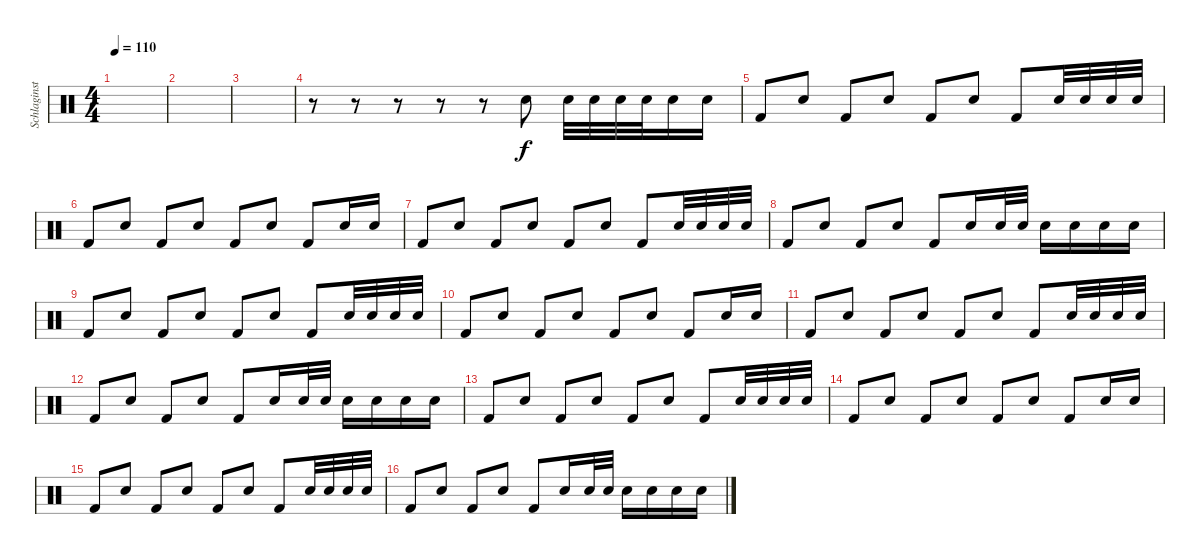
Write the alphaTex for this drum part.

\track ("Schlaginstrumente - Auswahl" "Schlaginst") {instrument percussion}
\staff {score}
\articulation defaults
\ts (4 4)
\tempo 110
\clef neutral
\ks c
|
|
|
r.8 r.8 r.8 r.8 r.8 "Electric Snare (hit)".8 "Electric Snare (hit)".32 "Electric Snare (hit)".32 "Electric Snare (hit)".32 "Electric Snare (hit)".32 "Electric Snare (hit)".16 "Electric Snare (hit)".16 |
"Kick (hit) 2".8 "Electric Snare (hit)".8 "Kick (hit) 2".8 "Electric Snare (hit)".8 "Kick (hit) 2".8 "Electric Snare (hit)".8 "Kick (hit) 2".8 "Electric Snare (hit)".32 "Electric Snare (hit)".32 "Electric Snare (hit)".32 "Electric Snare (hit)".32 |
"Kick (hit) 2".8 "Electric Snare (hit)".8 "Kick (hit) 2".8 "Electric Snare (hit)".8 "Kick (hit) 2".8 "Electric Snare (hit)".8 "Kick (hit) 2".8 "Electric Snare (hit)".16 "Electric Snare (hit)".16 |
"Kick (hit) 2".8 "Electric Snare (hit)".8 "Kick (hit) 2".8 "Electric Snare (hit)".8 "Kick (hit) 2".8 "Electric Snare (hit)".8 "Kick (hit) 2".8 "Electric Snare (hit)".32 "Electric Snare (hit)".32 "Electric Snare (hit)".32 "Electric Snare (hit)".32 |
"Kick (hit) 2".8 "Electric Snare (hit)".8 "Kick (hit) 2".8 "Electric Snare (hit)".8 "Kick (hit) 2".8 "Electric Snare (hit)".16 "Electric Snare (hit)".32 "Electric Snare (hit)".32 "Electric Snare (hit)".16 "Electric Snare (hit)".16 "Electric Snare (hit)".16 "Electric Snare (hit)".16 |
"Kick (hit) 2".8 "Electric Snare (hit)".8 "Kick (hit) 2".8 "Electric Snare (hit)".8 "Kick (hit) 2".8 "Electric Snare (hit)".8 "Kick (hit) 2".8 "Electric Snare (hit)".32 "Electric Snare (hit)".32 "Electric Snare (hit)".32 "Electric Snare (hit)".32 |
"Kick (hit) 2".8 "Electric Snare (hit)".8 "Kick (hit) 2".8 "Electric Snare (hit)".8 "Kick (hit) 2".8 "Electric Snare (hit)".8 "Kick (hit) 2".8 "Electric Snare (hit)".16 "Electric Snare (hit)".16 |
"Kick (hit) 2".8 "Electric Snare (hit)".8 "Kick (hit) 2".8 "Electric Snare (hit)".8 "Kick (hit) 2".8 "Electric Snare (hit)".8 "Kick (hit) 2".8 "Electric Snare (hit)".32 "Electric Snare (hit)".32 "Electric Snare (hit)".32 "Electric Snare (hit)".32 |
"Kick (hit) 2".8 "Electric Snare (hit)".8 "Kick (hit) 2".8 "Electric Snare (hit)".8 "Kick (hit) 2".8 "Electric Snare (hit)".16 "Electric Snare (hit)".32 "Electric Snare (hit)".32 "Electric Snare (hit)".16 "Electric Snare (hit)".16 "Electric Snare (hit)".16 "Electric Snare (hit)".16 |
"Kick (hit) 2".8 "Electric Snare (hit)".8 "Kick (hit) 2".8 "Electric Snare (hit)".8 "Kick (hit) 2".8 "Electric Snare (hit)".8 "Kick (hit) 2".8 "Electric Snare (hit)".32 "Electric Snare (hit)".32 "Electric Snare (hit)".32 "Electric Snare (hit)".32 |
"Kick (hit) 2".8 "Electric Snare (hit)".8 "Kick (hit) 2".8 "Electric Snare (hit)".8 "Kick (hit) 2".8 "Electric Snare (hit)".8 "Kick (hit) 2".8 "Electric Snare (hit)".16 "Electric Snare (hit)".16 |
"Kick (hit) 2".8 "Electric Snare (hit)".8 "Kick (hit) 2".8 "Electric Snare (hit)".8 "Kick (hit) 2".8 "Electric Snare (hit)".8 "Kick (hit) 2".8 "Electric Snare (hit)".32 "Electric Snare (hit)".32 "Electric Snare (hit)".32 "Electric Snare (hit)".32 |
"Kick (hit) 2".8 "Electric Snare (hit)".8 "Kick (hit) 2".8 "Electric Snare (hit)".8 "Kick (hit) 2".8 "Electric Snare (hit)".16 "Electric Snare (hit)".32 "Electric Snare (hit)".32 "Electric Snare (hit)".16 "Electric Snare (hit)".16 "Electric Snare (hit)".16 "Electric Snare (hit)".16
